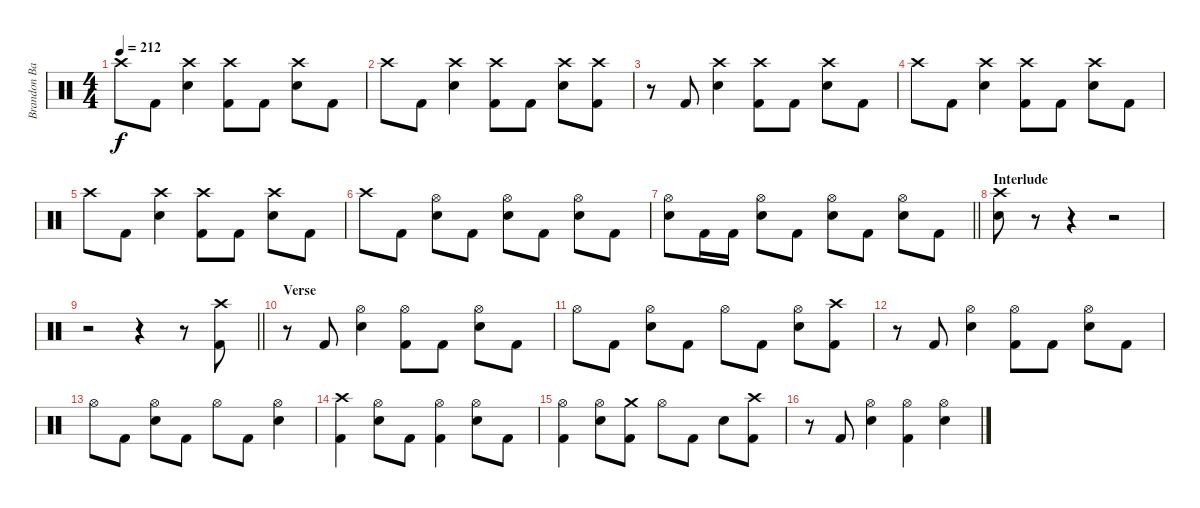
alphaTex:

\track ("Brandon Barnes - Drums" "Brandon Ba") {instrument percussion}
\staff {score}
\articulation defaults
\ts (4 4)
\tempo 212
\clef neutral
\ks c "Crash high (hit)".8{dy f} "Kick (hit) 2".8
("Snare (hit) 2" "Crash high (hit)").4 ("Kick (hit) 2" "Crash high (hit)").8 "Kick (hit) 2".8 ("Snare (hit) 2" "Crash high (hit)").8 "Kick (hit) 2".8 |
"Crash high (hit)".8 "Kick (hit) 2".8 ("Snare (hit) 2" "Crash high (hit)").4 ("Kick (hit) 2" "Crash high (hit)").8 "Kick (hit) 2".8 ("Snare (hit) 2" "Crash high (hit)").8 ("Kick (hit) 2" "Crash high (hit)").8 |
r.8 "Kick (hit) 2".8 ("Snare (hit) 2" "Crash high (hit)").4 ("Kick (hit) 2" "Crash high (hit)").8 "Kick (hit) 2".8 ("Snare (hit) 2" "Crash high (hit)").8 "Kick (hit) 2".8 |
"Crash high (hit)".8 "Kick (hit) 2".8 ("Snare (hit) 2" "Crash high (hit)").4 ("Kick (hit) 2" "Crash high (hit)").8 "Kick (hit) 2".8 ("Snare (hit) 2" "Crash high (hit)").8 "Kick (hit) 2".8 |
"Crash high (hit)".8 "Kick (hit) 2".8 ("Snare (hit) 2" "Crash high (hit)").4 ("Kick (hit) 2" "Crash high (hit)").8 "Kick (hit) 2".8 ("Snare (hit) 2" "Crash high (hit)").8 "Kick (hit) 2".8 |
"Crash high (hit)".8 "Kick (hit) 2".8 ("Snare (hit) 2" "Hi-Hat (open)").8 "Kick (hit) 2".8 ("Hi-Hat (open)" "Snare (hit) 2").8 "Kick (hit) 2".8 ("Hi-Hat (open)" "Snare (hit) 2").8 "Kick (hit) 2".8 |
\barLineRight lightlight
("Hi-Hat (open)" "Snare (hit) 2").8 "Kick (hit) 2".16 "Kick (hit) 2".16 ("Hi-Hat (open)" "Snare (hit) 2").8 "Kick (hit) 2".8 ("Hi-Hat (open)" "Snare (hit) 2").8 "Kick (hit) 2".8 ("Hi-Hat (open)" "Snare (hit) 2").8 "Kick (hit) 2".8 |
\section ("" "Interlude")
("Crash high (hit)" "Snare (hit) 2").8 r.8 r.4 r.2 |
\barLineRight lightlight
r.2 r.4 r.8 ("Kick (hit) 2" "Crash high (hit)").8 |
\section ("" "Verse")
r.8 "Kick (hit) 2".8 ("Snare (hit) 2" "Hi-Hat (open)").4 ("Kick (hit) 2" "Hi-Hat (open)").8 "Kick (hit) 2".8 ("Snare (hit) 2" "Hi-Hat (open)").8 "Kick (hit) 2".8 |
"Hi-Hat (open)".8 "Kick (hit) 2".8 ("Snare (hit) 2" "Hi-Hat (open)").8 "Kick (hit) 2".8 "Hi-Hat (open)".8 "Kick (hit) 2".8 ("Snare (hit) 2" "Hi-Hat (open)").8 ("Kick (hit) 2" "Crash high (hit)").8 |
r.8 "Kick (hit) 2".8 ("Snare (hit) 2" "Hi-Hat (open)").4 ("Kick (hit) 2" "Hi-Hat (open)").8 "Kick (hit) 2".8 ("Snare (hit) 2" "Hi-Hat (open)").8 "Kick (hit) 2".8 |
"Hi-Hat (open)".8 "Kick (hit) 2".8 ("Snare (hit) 2" "Hi-Hat (open)").8 "Kick (hit) 2".8 "Hi-Hat (open)".8 "Kick (hit) 2".8 ("Snare (hit) 2" "Hi-Hat (open)").4 |
("Kick (hit) 2" "Crash high (hit)").4 ("Snare (hit) 2" "Hi-Hat (open)").8 "Kick (hit) 2".8 ("Kick (hit) 2" "Hi-Hat (open)").4 ("Snare (hit) 2" "Hi-Hat (open)").8 "Kick (hit) 2".8 |
("Kick (hit) 2" "Hi-Hat (open)").4 ("Snare (hit) 2" "Hi-Hat (open)").8 ("Kick (hit) 2" "Crash medium (hit)").8 "Hi-Hat (open)".8 "Kick (hit) 2".8 "Snare (hit) 2".8 ("Kick (hit) 2" "Crash high (hit)").8 |
r.8 "Kick (hit) 2".8 ("Snare (hit) 2" "Hi-Hat (open)").4 ("Kick (hit) 2" "Hi-Hat (open)").4 ("Snare (hit) 2" "Hi-Hat (open)").4
